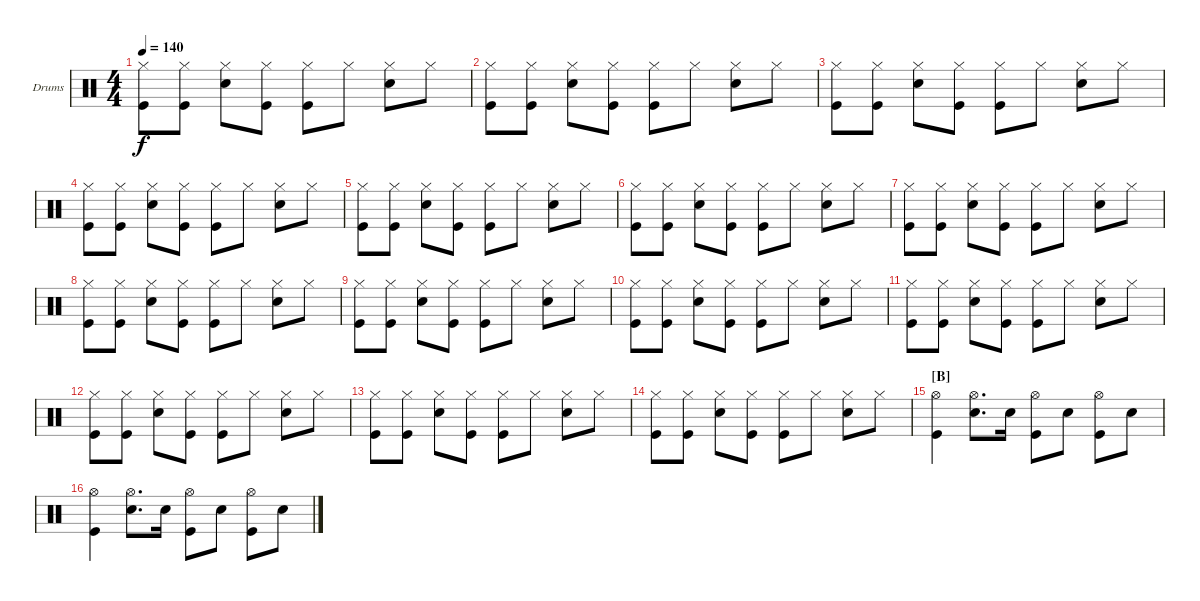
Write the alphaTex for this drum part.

\bracketExtendMode groupsimilarinstruments
\firstSystemTrackNameOrientation horizontal
\otherSystemsTrackNameOrientation horizontal
\track ("Fabrizio Moretti" "Drums") {instrument percussion}
\staff {score}
\articulation defaults
\ts (4 4)
\tempo 140
\clef neutral
\ks aminor
("Kick (hit)" "Hi-Hat (closed)").8{dy f} ("Kick (hit)" "Hi-Hat (closed)").8 ("Snare (hit) 2" "Hi-Hat (closed)").8 ("Kick (hit)" "Hi-Hat (closed)").8 ("Kick (hit)" "Hi-Hat (closed)").8 "Hi-Hat (closed)".8 ("Snare (hit) 2" "Hi-Hat (closed)").8 "Hi-Hat (closed)".8 |
("Kick (hit)" "Hi-Hat (closed)").8 ("Kick (hit)" "Hi-Hat (closed)").8 ("Snare (hit) 2" "Hi-Hat (closed)").8 ("Kick (hit)" "Hi-Hat (closed)").8 ("Kick (hit)" "Hi-Hat (closed)").8 "Hi-Hat (closed)".8 ("Snare (hit) 2" "Hi-Hat (closed)").8 "Hi-Hat (closed)".8 |
("Kick (hit)" "Hi-Hat (closed)").8 ("Kick (hit)" "Hi-Hat (closed)").8 ("Snare (hit) 2" "Hi-Hat (closed)").8 ("Kick (hit)" "Hi-Hat (closed)").8 ("Kick (hit)" "Hi-Hat (closed)").8 "Hi-Hat (closed)".8 ("Snare (hit) 2" "Hi-Hat (closed)").8 "Hi-Hat (closed)".8 |
("Kick (hit)" "Hi-Hat (closed)").8 ("Kick (hit)" "Hi-Hat (closed)").8 ("Snare (hit) 2" "Hi-Hat (closed)").8 ("Kick (hit)" "Hi-Hat (closed)").8 ("Kick (hit)" "Hi-Hat (closed)").8 "Hi-Hat (closed)".8 ("Snare (hit) 2" "Hi-Hat (closed)").8 "Hi-Hat (closed)".8 |
("Kick (hit)" "Hi-Hat (closed)").8 ("Kick (hit)" "Hi-Hat (closed)").8 ("Snare (hit) 2" "Hi-Hat (closed)").8 ("Kick (hit)" "Hi-Hat (closed)").8 ("Kick (hit)" "Hi-Hat (closed)").8 "Hi-Hat (closed)".8 ("Snare (hit) 2" "Hi-Hat (closed)").8 "Hi-Hat (closed)".8 |
("Kick (hit)" "Hi-Hat (closed)").8 ("Kick (hit)" "Hi-Hat (closed)").8 ("Snare (hit) 2" "Hi-Hat (closed)").8 ("Kick (hit)" "Hi-Hat (closed)").8 ("Kick (hit)" "Hi-Hat (closed)").8 "Hi-Hat (closed)".8 ("Snare (hit) 2" "Hi-Hat (closed)").8 "Hi-Hat (closed)".8 |
("Kick (hit)" "Hi-Hat (closed)").8 ("Kick (hit)" "Hi-Hat (closed)").8 ("Snare (hit) 2" "Hi-Hat (closed)").8 ("Kick (hit)" "Hi-Hat (closed)").8 ("Kick (hit)" "Hi-Hat (closed)").8 "Hi-Hat (closed)".8 ("Snare (hit) 2" "Hi-Hat (closed)").8 "Hi-Hat (closed)".8 |
("Kick (hit)" "Hi-Hat (closed)").8 ("Kick (hit)" "Hi-Hat (closed)").8 ("Snare (hit) 2" "Hi-Hat (closed)").8 ("Kick (hit)" "Hi-Hat (closed)").8 ("Kick (hit)" "Hi-Hat (closed)").8 "Hi-Hat (closed)".8 ("Snare (hit) 2" "Hi-Hat (closed)").8 "Hi-Hat (closed)".8 |
("Kick (hit)" "Hi-Hat (closed)").8 ("Kick (hit)" "Hi-Hat (closed)").8 ("Snare (hit) 2" "Hi-Hat (closed)").8 ("Kick (hit)" "Hi-Hat (closed)").8 ("Kick (hit)" "Hi-Hat (closed)").8 "Hi-Hat (closed)".8 ("Snare (hit) 2" "Hi-Hat (closed)").8 "Hi-Hat (closed)".8 |
("Kick (hit)" "Hi-Hat (closed)").8 ("Kick (hit)" "Hi-Hat (closed)").8 ("Snare (hit) 2" "Hi-Hat (closed)").8 ("Kick (hit)" "Hi-Hat (closed)").8 ("Kick (hit)" "Hi-Hat (closed)").8 "Hi-Hat (closed)".8 ("Snare (hit) 2" "Hi-Hat (closed)").8 "Hi-Hat (closed)".8 |
("Kick (hit)" "Hi-Hat (closed)").8 ("Kick (hit)" "Hi-Hat (closed)").8 ("Snare (hit) 2" "Hi-Hat (closed)").8 ("Kick (hit)" "Hi-Hat (closed)").8 ("Kick (hit)" "Hi-Hat (closed)").8 "Hi-Hat (closed)".8 ("Snare (hit) 2" "Hi-Hat (closed)").8 "Hi-Hat (closed)".8 |
("Kick (hit)" "Hi-Hat (closed)").8 ("Kick (hit)" "Hi-Hat (closed)").8 ("Snare (hit) 2" "Hi-Hat (closed)").8 ("Kick (hit)" "Hi-Hat (closed)").8 ("Kick (hit)" "Hi-Hat (closed)").8 "Hi-Hat (closed)".8 ("Snare (hit) 2" "Hi-Hat (closed)").8 "Hi-Hat (closed)".8 |
("Kick (hit)" "Hi-Hat (closed)").8 ("Kick (hit)" "Hi-Hat (closed)").8 ("Snare (hit) 2" "Hi-Hat (closed)").8 ("Kick (hit)" "Hi-Hat (closed)").8 ("Kick (hit)" "Hi-Hat (closed)").8 "Hi-Hat (closed)".8 ("Snare (hit) 2" "Hi-Hat (closed)").8 "Hi-Hat (closed)".8 |
("Kick (hit)" "Hi-Hat (closed)").8 ("Kick (hit)" "Hi-Hat (closed)").8 ("Snare (hit) 2" "Hi-Hat (closed)").8 ("Kick (hit)" "Hi-Hat (closed)").8 ("Kick (hit)" "Hi-Hat (closed)").8 "Hi-Hat (closed)".8 ("Snare (hit) 2" "Hi-Hat (closed)").8 "Hi-Hat (closed)".8 |
\section ("B" "")
("Hi-Hat (open)" "Kick (hit)").4 ("Hi-Hat (open)" "Snare (hit) 2").8{d} "Snare (hit) 2".16 ("Hi-Hat (open)" "Kick (hit)").8 "Snare (hit) 2".8 ("Hi-Hat (open)" "Kick (hit)").8 "Snare (hit) 2".8 |
("Hi-Hat (open)" "Kick (hit)").4 ("Hi-Hat (open)" "Snare (hit) 2").8{d} "Snare (hit) 2".16 ("Hi-Hat (open)" "Kick (hit)").8 "Snare (hit) 2".8 ("Hi-Hat (open)" "Kick (hit)").8 "Snare (hit) 2".8
